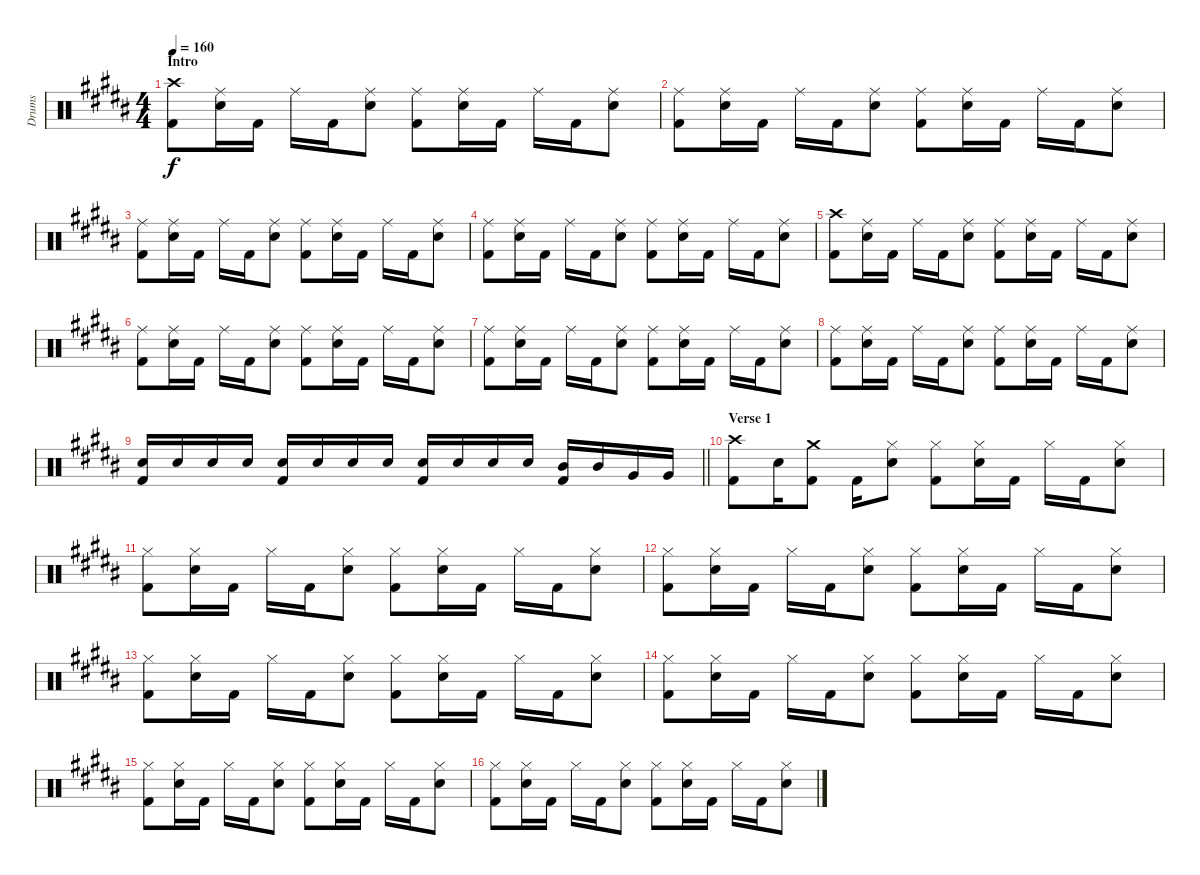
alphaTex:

\track ("Drums" "Drums") {instrument percussion}
\staff {score}
\articulation defaults
\ts (4 4)
\section ("" "Intro")
\tempo 160
\clef neutral
\ks g#minor
("Crash high (hit)" "Kick (hit) 2").8{dy f} ("Ride (middle)" "Electric Snare (hit)").16 "Kick (hit) 2".16 "Ride (middle)".16 "Kick (hit) 2".16 ("Ride (middle)" "Electric Snare (hit)").8 ("Ride (middle)" "Kick (hit) 2").8 ("Ride (middle)" "Electric Snare (hit)").16 "Kick (hit) 2".16 "Ride (middle)".16 "Kick (hit) 2".16 ("Ride (middle)" "Electric Snare (hit)").8 |
("Ride (middle)" "Kick (hit) 2").8 ("Ride (middle)" "Electric Snare (hit)").16 "Kick (hit) 2".16 "Ride (middle)".16 "Kick (hit) 2".16 ("Ride (middle)" "Electric Snare (hit)").8 ("Ride (middle)" "Kick (hit) 2").8 ("Ride (middle)" "Electric Snare (hit)").16 "Kick (hit) 2".16 "Ride (middle)".16 "Kick (hit) 2".16 ("Ride (middle)" "Electric Snare (hit)").8 |
("Ride (middle)" "Kick (hit) 2").8 ("Ride (middle)" "Electric Snare (hit)").16 "Kick (hit) 2".16 "Ride (middle)".16 "Kick (hit) 2".16 ("Ride (middle)" "Electric Snare (hit)").8 ("Ride (middle)" "Kick (hit) 2").8 ("Ride (middle)" "Electric Snare (hit)").16 "Kick (hit) 2".16 "Ride (middle)".16 "Kick (hit) 2".16 ("Ride (middle)" "Electric Snare (hit)").8 |
("Ride (middle)" "Kick (hit) 2").8 ("Ride (middle)" "Electric Snare (hit)").16 "Kick (hit) 2".16 "Ride (middle)".16 "Kick (hit) 2".16 ("Ride (middle)" "Electric Snare (hit)").8 ("Ride (middle)" "Kick (hit) 2").8 ("Ride (middle)" "Electric Snare (hit)").16 "Kick (hit) 2".16 "Ride (middle)".16 "Kick (hit) 2".16 ("Ride (middle)" "Electric Snare (hit)").8 |
("Crash high (hit)" "Kick (hit) 2").8 ("Ride (middle)" "Electric Snare (hit)").16 "Kick (hit) 2".16 "Ride (middle)".16 "Kick (hit) 2".16 ("Ride (middle)" "Electric Snare (hit)").8 ("Ride (middle)" "Kick (hit) 2").8 ("Ride (middle)" "Electric Snare (hit)").16 "Kick (hit) 2".16 "Ride (middle)".16 "Kick (hit) 2".16 ("Ride (middle)" "Electric Snare (hit)").8 |
("Ride (middle)" "Kick (hit) 2").8 ("Ride (middle)" "Electric Snare (hit)").16 "Kick (hit) 2".16 "Ride (middle)".16 "Kick (hit) 2".16 ("Ride (middle)" "Electric Snare (hit)").8 ("Ride (middle)" "Kick (hit) 2").8 ("Ride (middle)" "Electric Snare (hit)").16 "Kick (hit) 2".16 "Ride (middle)".16 "Kick (hit) 2".16 ("Ride (middle)" "Electric Snare (hit)").8 |
("Ride (middle)" "Kick (hit) 2").8 ("Ride (middle)" "Electric Snare (hit)").16 "Kick (hit) 2".16 "Ride (middle)".16 "Kick (hit) 2".16 ("Ride (middle)" "Electric Snare (hit)").8 ("Ride (middle)" "Kick (hit) 2").8 ("Ride (middle)" "Electric Snare (hit)").16 "Kick (hit) 2".16 "Ride (middle)".16 "Kick (hit) 2".16 ("Ride (middle)" "Electric Snare (hit)").8 |
("Ride (middle)" "Kick (hit) 2").8 ("Ride (middle)" "Electric Snare (hit)").16 "Kick (hit) 2".16 "Ride (middle)".16 "Kick (hit) 2".16 ("Ride (middle)" "Electric Snare (hit)").8 ("Ride (middle)" "Kick (hit) 2").8 ("Ride (middle)" "Electric Snare (hit)").16 "Kick (hit) 2".16 "Ride (middle)".16 "Kick (hit) 2".16 ("Ride (middle)" "Electric Snare (hit)").8 |
\barLineRight lightlight
("Electric Snare (hit)" "Kick (hit) 2").16 "Electric Snare (hit)".16 "Electric Snare (hit)".16 "Electric Snare (hit)".16 ("Electric Snare (hit)" "Kick (hit) 2").16 "Electric Snare (hit)".16 "Electric Snare (hit)".16 "Electric Snare (hit)".16 ("Electric Snare (hit)" "Kick (hit) 2").16 "Electric Snare (hit)".16 "Electric Snare (hit)".16 "Electric Snare (hit)".16 ("Mid Tom (hit)" "Kick (hit) 2").16 "Mid Tom (hit)".16 "Very Low Tom (hit)".16 "Very Low Tom (hit)".16 |
\section ("" "Verse 1")
("Crash high (hit)" "Kick (hit) 2").8 "Electric Snare (hit)".16 ("Crash medium (hit)" "Kick (hit) 2").8 "Kick (hit) 2".16 ("Hi-Hat (closed)" "Electric Snare (hit)").8 ("Hi-Hat (closed)" "Kick (hit) 2").8 ("Hi-Hat (closed)" "Electric Snare (hit)").16 "Kick (hit) 2".16 "Hi-Hat (closed)".16 "Kick (hit) 2".16 ("Hi-Hat (closed)" "Electric Snare (hit)").8 |
("Hi-Hat (closed)" "Kick (hit) 2").8 ("Hi-Hat (closed)" "Electric Snare (hit)").16 "Kick (hit) 2".16 "Hi-Hat (closed)".16 "Kick (hit) 2".16 ("Hi-Hat (closed)" "Electric Snare (hit)").8 ("Hi-Hat (closed)" "Kick (hit) 2").8 ("Hi-Hat (closed)" "Electric Snare (hit)").16 "Kick (hit) 2".16 "Hi-Hat (closed)".16 "Kick (hit) 2".16 ("Hi-Hat (closed)" "Electric Snare (hit)").8 |
("Hi-Hat (closed)" "Kick (hit) 2").8 ("Hi-Hat (closed)" "Electric Snare (hit)").16 "Kick (hit) 2".16 "Hi-Hat (closed)".16 "Kick (hit) 2".16 ("Hi-Hat (closed)" "Electric Snare (hit)").8 ("Hi-Hat (closed)" "Kick (hit) 2").8 ("Hi-Hat (closed)" "Electric Snare (hit)").16 "Kick (hit) 2".16 "Hi-Hat (closed)".16 "Kick (hit) 2".16 ("Hi-Hat (closed)" "Electric Snare (hit)").8 |
("Hi-Hat (closed)" "Kick (hit) 2").8 ("Hi-Hat (closed)" "Electric Snare (hit)").16 "Kick (hit) 2".16 "Hi-Hat (closed)".16 "Kick (hit) 2".16 ("Hi-Hat (closed)" "Electric Snare (hit)").8 ("Hi-Hat (closed)" "Kick (hit) 2").8 ("Hi-Hat (closed)" "Electric Snare (hit)").16 "Kick (hit) 2".16 "Hi-Hat (closed)".16 "Kick (hit) 2".16 ("Hi-Hat (closed)" "Electric Snare (hit)").8 |
("Hi-Hat (closed)" "Kick (hit) 2").8 ("Hi-Hat (closed)" "Electric Snare (hit)").16 "Kick (hit) 2".16 "Hi-Hat (closed)".16 "Kick (hit) 2".16 ("Hi-Hat (closed)" "Electric Snare (hit)").8 ("Hi-Hat (closed)" "Kick (hit) 2").8 ("Hi-Hat (closed)" "Electric Snare (hit)").16 "Kick (hit) 2".16 "Hi-Hat (closed)".16 "Kick (hit) 2".16 ("Hi-Hat (closed)" "Electric Snare (hit)").8 |
("Hi-Hat (closed)" "Kick (hit) 2").8 ("Hi-Hat (closed)" "Electric Snare (hit)").16 "Kick (hit) 2".16 "Hi-Hat (closed)".16 "Kick (hit) 2".16 ("Hi-Hat (closed)" "Electric Snare (hit)").8 ("Hi-Hat (closed)" "Kick (hit) 2").8 ("Hi-Hat (closed)" "Electric Snare (hit)").16 "Kick (hit) 2".16 "Hi-Hat (closed)".16 "Kick (hit) 2".16 ("Hi-Hat (closed)" "Electric Snare (hit)").8 |
("Hi-Hat (closed)" "Kick (hit) 2").8 ("Hi-Hat (closed)" "Electric Snare (hit)").16 "Kick (hit) 2".16 "Hi-Hat (closed)".16 "Kick (hit) 2".16 ("Hi-Hat (closed)" "Electric Snare (hit)").8 ("Hi-Hat (closed)" "Kick (hit) 2").8 ("Hi-Hat (closed)" "Electric Snare (hit)").16 "Kick (hit) 2".16 "Hi-Hat (closed)".16 "Kick (hit) 2".16 ("Hi-Hat (closed)" "Electric Snare (hit)").8
